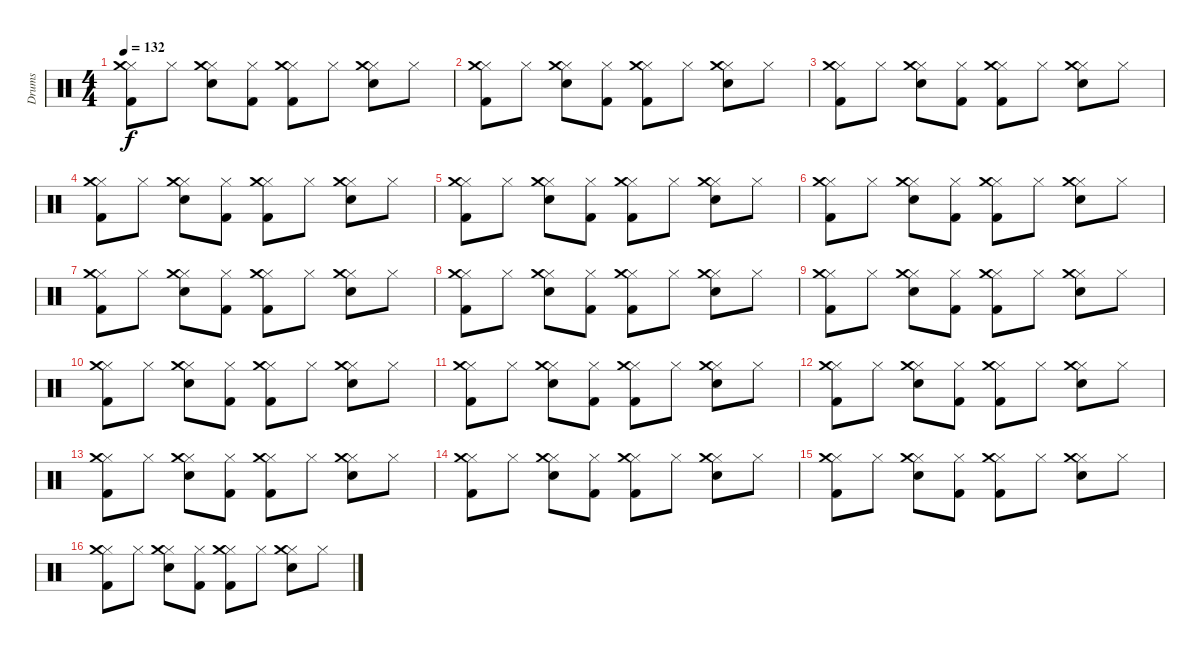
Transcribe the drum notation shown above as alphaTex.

\track ("Drums" "Drums") {instrument percussion}
\staff {score}
\articulation defaults
\ts (4 4)
\tempo 132
\clef neutral
\ks c
("Hi-Hat (closed)" "Crash medium (hit)" "Kick (hit) 2").8{dy f} "Hi-Hat (closed)".8 ("Hi-Hat (closed)" "Crash medium (hit)" "Snare (hit) 2").8 ("Hi-Hat (closed)" "Kick (hit) 2").8 ("Hi-Hat (closed)" "Crash medium (hit)" "Kick (hit) 2").8 "Hi-Hat (closed)".8 ("Hi-Hat (closed)" "Crash medium (hit)" "Snare (hit) 2").8 "Hi-Hat (closed)".8 |
("Hi-Hat (closed)" "Crash medium (hit)" "Kick (hit) 2").8 "Hi-Hat (closed)".8 ("Hi-Hat (closed)" "Crash medium (hit)" "Snare (hit) 2").8 ("Hi-Hat (closed)" "Kick (hit) 2").8 ("Hi-Hat (closed)" "Crash medium (hit)" "Kick (hit) 2").8 "Hi-Hat (closed)".8 ("Hi-Hat (closed)" "Crash medium (hit)" "Snare (hit) 2").8 "Hi-Hat (closed)".8 |
("Hi-Hat (closed)" "Crash medium (hit)" "Kick (hit) 2").8 "Hi-Hat (closed)".8 ("Hi-Hat (closed)" "Crash medium (hit)" "Snare (hit) 2").8 ("Hi-Hat (closed)" "Kick (hit) 2").8 ("Hi-Hat (closed)" "Crash medium (hit)" "Kick (hit) 2").8 "Hi-Hat (closed)".8 ("Hi-Hat (closed)" "Crash medium (hit)" "Snare (hit) 2").8 "Hi-Hat (closed)".8 |
("Hi-Hat (closed)" "Crash medium (hit)" "Kick (hit) 2").8 "Hi-Hat (closed)".8 ("Hi-Hat (closed)" "Crash medium (hit)" "Snare (hit) 2").8 ("Hi-Hat (closed)" "Kick (hit) 2").8 ("Hi-Hat (closed)" "Crash medium (hit)" "Kick (hit) 2").8 "Hi-Hat (closed)".8 ("Hi-Hat (closed)" "Crash medium (hit)" "Snare (hit) 2").8 "Hi-Hat (closed)".8 |
("Hi-Hat (closed)" "Crash medium (hit)" "Kick (hit) 2").8 "Hi-Hat (closed)".8 ("Hi-Hat (closed)" "Crash medium (hit)" "Snare (hit) 2").8 ("Hi-Hat (closed)" "Kick (hit) 2").8 ("Hi-Hat (closed)" "Crash medium (hit)" "Kick (hit) 2").8 "Hi-Hat (closed)".8 ("Hi-Hat (closed)" "Crash medium (hit)" "Snare (hit) 2").8 "Hi-Hat (closed)".8 |
("Hi-Hat (closed)" "Crash medium (hit)" "Kick (hit) 2").8 "Hi-Hat (closed)".8 ("Hi-Hat (closed)" "Crash medium (hit)" "Snare (hit) 2").8 ("Hi-Hat (closed)" "Kick (hit) 2").8 ("Hi-Hat (closed)" "Crash medium (hit)" "Kick (hit) 2").8 "Hi-Hat (closed)".8 ("Hi-Hat (closed)" "Crash medium (hit)" "Snare (hit) 2").8 "Hi-Hat (closed)".8 |
("Hi-Hat (closed)" "Crash medium (hit)" "Kick (hit) 2").8 "Hi-Hat (closed)".8 ("Hi-Hat (closed)" "Crash medium (hit)" "Snare (hit) 2").8 ("Hi-Hat (closed)" "Kick (hit) 2").8 ("Hi-Hat (closed)" "Crash medium (hit)" "Kick (hit) 2").8 "Hi-Hat (closed)".8 ("Hi-Hat (closed)" "Crash medium (hit)" "Snare (hit) 2").8 "Hi-Hat (closed)".8 |
("Hi-Hat (closed)" "Crash medium (hit)" "Kick (hit) 2").8 "Hi-Hat (closed)".8 ("Hi-Hat (closed)" "Crash medium (hit)" "Snare (hit) 2").8 ("Hi-Hat (closed)" "Kick (hit) 2").8 ("Hi-Hat (closed)" "Crash medium (hit)" "Kick (hit) 2").8 "Hi-Hat (closed)".8 ("Hi-Hat (closed)" "Crash medium (hit)" "Snare (hit) 2").8 "Hi-Hat (closed)".8 |
("Hi-Hat (closed)" "Crash medium (hit)" "Kick (hit) 2").8 "Hi-Hat (closed)".8 ("Hi-Hat (closed)" "Crash medium (hit)" "Snare (hit) 2").8 ("Hi-Hat (closed)" "Kick (hit) 2").8 ("Hi-Hat (closed)" "Crash medium (hit)" "Kick (hit) 2").8 "Hi-Hat (closed)".8 ("Hi-Hat (closed)" "Crash medium (hit)" "Snare (hit) 2").8 "Hi-Hat (closed)".8 |
("Hi-Hat (closed)" "Crash medium (hit)" "Kick (hit) 2").8 "Hi-Hat (closed)".8 ("Hi-Hat (closed)" "Crash medium (hit)" "Snare (hit) 2").8 ("Hi-Hat (closed)" "Kick (hit) 2").8 ("Hi-Hat (closed)" "Crash medium (hit)" "Kick (hit) 2").8 "Hi-Hat (closed)".8 ("Hi-Hat (closed)" "Crash medium (hit)" "Snare (hit) 2").8 "Hi-Hat (closed)".8 |
("Hi-Hat (closed)" "Crash medium (hit)" "Kick (hit) 2").8 "Hi-Hat (closed)".8 ("Hi-Hat (closed)" "Crash medium (hit)" "Snare (hit) 2").8 ("Hi-Hat (closed)" "Kick (hit) 2").8 ("Hi-Hat (closed)" "Crash medium (hit)" "Kick (hit) 2").8 "Hi-Hat (closed)".8 ("Hi-Hat (closed)" "Crash medium (hit)" "Snare (hit) 2").8 "Hi-Hat (closed)".8 |
("Hi-Hat (closed)" "Crash medium (hit)" "Kick (hit) 2").8 "Hi-Hat (closed)".8 ("Hi-Hat (closed)" "Crash medium (hit)" "Snare (hit) 2").8 ("Hi-Hat (closed)" "Kick (hit) 2").8 ("Hi-Hat (closed)" "Crash medium (hit)" "Kick (hit) 2").8 "Hi-Hat (closed)".8 ("Hi-Hat (closed)" "Crash medium (hit)" "Snare (hit) 2").8 "Hi-Hat (closed)".8 |
("Hi-Hat (closed)" "Crash medium (hit)" "Kick (hit) 2").8 "Hi-Hat (closed)".8 ("Hi-Hat (closed)" "Crash medium (hit)" "Snare (hit) 2").8 ("Hi-Hat (closed)" "Kick (hit) 2").8 ("Hi-Hat (closed)" "Crash medium (hit)" "Kick (hit) 2").8 "Hi-Hat (closed)".8 ("Hi-Hat (closed)" "Crash medium (hit)" "Snare (hit) 2").8 "Hi-Hat (closed)".8 |
("Hi-Hat (closed)" "Crash medium (hit)" "Kick (hit) 2").8 "Hi-Hat (closed)".8 ("Hi-Hat (closed)" "Crash medium (hit)" "Snare (hit) 2").8 ("Hi-Hat (closed)" "Kick (hit) 2").8 ("Hi-Hat (closed)" "Crash medium (hit)" "Kick (hit) 2").8 "Hi-Hat (closed)".8 ("Hi-Hat (closed)" "Crash medium (hit)" "Snare (hit) 2").8 "Hi-Hat (closed)".8 |
("Hi-Hat (closed)" "Crash medium (hit)" "Kick (hit) 2").8 "Hi-Hat (closed)".8 ("Hi-Hat (closed)" "Crash medium (hit)" "Snare (hit) 2").8 ("Hi-Hat (closed)" "Kick (hit) 2").8 ("Hi-Hat (closed)" "Crash medium (hit)" "Kick (hit) 2").8 "Hi-Hat (closed)".8 ("Hi-Hat (closed)" "Crash medium (hit)" "Snare (hit) 2").8 "Hi-Hat (closed)".8 |
("Hi-Hat (closed)" "Crash medium (hit)" "Kick (hit) 2").8 "Hi-Hat (closed)".8 ("Hi-Hat (closed)" "Crash medium (hit)" "Snare (hit) 2").8 ("Hi-Hat (closed)" "Kick (hit) 2").8 ("Hi-Hat (closed)" "Crash medium (hit)" "Kick (hit) 2").8 "Hi-Hat (closed)".8 ("Hi-Hat (closed)" "Crash medium (hit)" "Snare (hit) 2").8 "Hi-Hat (closed)".8
